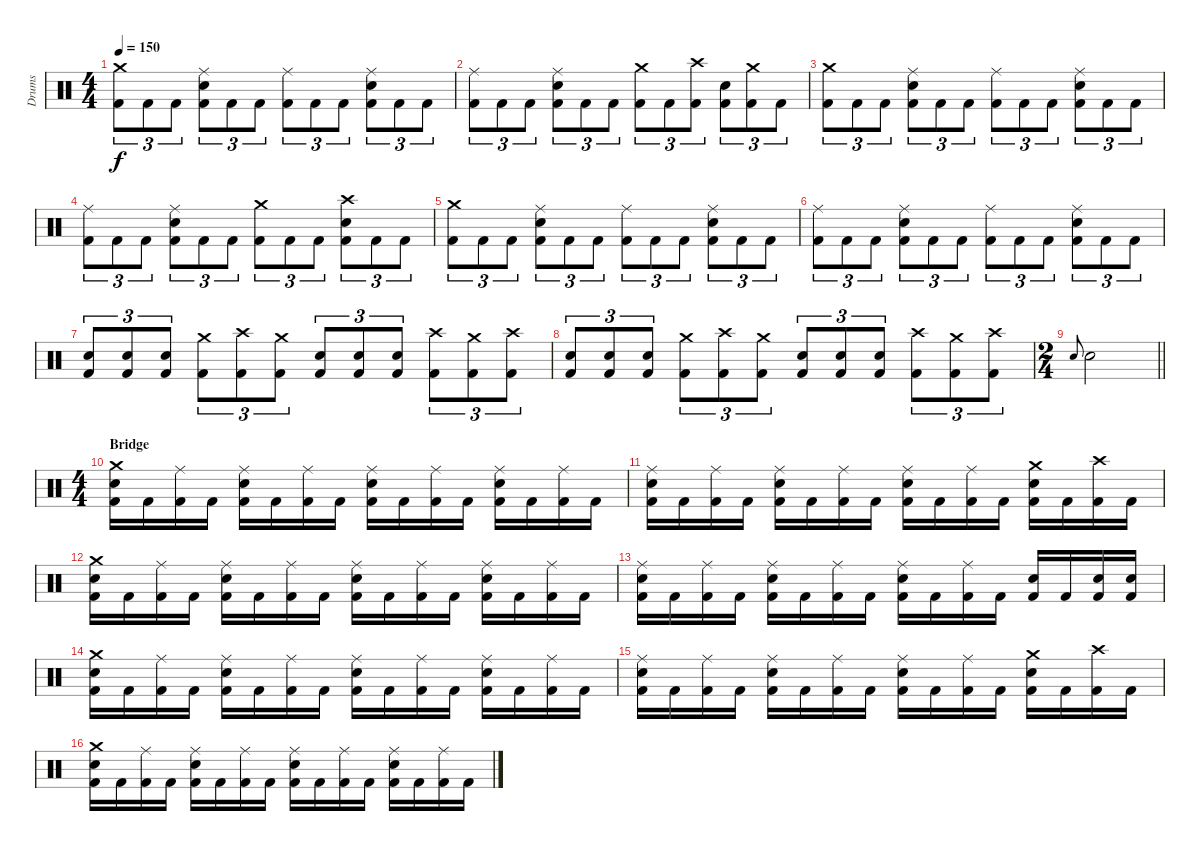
\track ("Drums" "Drums") {instrument percussion}
\staff {score}
\articulation defaults
\ts (4 4)
\tempo 150
\clef neutral
\ks c
("Kick (hit) 2" "Crash medium (hit)").8{tu (3 2) dy f} "Kick (hit) 2".8{tu (3 2)} "Kick (hit) 2".8{tu (3 2)} ("Kick (hit) 2" "Snare (hit) 2" "Ride (middle)").8{tu (3 2)} "Kick (hit) 2".8{tu (3 2)} "Kick (hit) 2".8{tu (3 2)} ("Kick (hit) 2" "Ride (middle)").8{tu (3 2)} "Kick (hit) 2".8{tu (3 2)} "Kick (hit) 2".8{tu (3 2)} ("Kick (hit) 2" "Snare (hit) 2" "Ride (middle)").8{tu (3 2)} "Kick (hit) 2".8{tu (3 2)} "Kick (hit) 2".8{tu (3 2)} |
("Kick (hit) 2" "Ride (middle)").8{tu (3 2)} "Kick (hit) 2".8{tu (3 2)} "Kick (hit) 2".8{tu (3 2)} ("Kick (hit) 2" "Snare (hit) 2" "Ride (middle)").8{tu (3 2)} "Kick (hit) 2".8{tu (3 2)} "Kick (hit) 2".8{tu (3 2)} ("Kick (hit) 2" "Crash medium (hit)").8{tu (3 2)} "Kick (hit) 2".8{tu (3 2)} ("Kick (hit) 2" "Crash high (hit)").8{tu (3 2)} ("Kick (hit) 2" "Snare (hit) 2").8{tu (3 2)} ("Kick (hit) 2" "Crash medium (hit)").8{tu (3 2)} "Kick (hit) 2".8{tu (3 2)} |
("Kick (hit) 2" "Crash medium (hit)").8{tu (3 2)} "Kick (hit) 2".8{tu (3 2)} "Kick (hit) 2".8{tu (3 2)} ("Kick (hit) 2" "Snare (hit) 2" "Ride (middle)").8{tu (3 2)} "Kick (hit) 2".8{tu (3 2)} "Kick (hit) 2".8{tu (3 2)} ("Kick (hit) 2" "Ride (middle)").8{tu (3 2)} "Kick (hit) 2".8{tu (3 2)} "Kick (hit) 2".8{tu (3 2)} ("Kick (hit) 2" "Snare (hit) 2" "Ride (middle)").8{tu (3 2)} "Kick (hit) 2".8{tu (3 2)} "Kick (hit) 2".8{tu (3 2)} |
("Kick (hit) 2" "Ride (middle)").8{tu (3 2)} "Kick (hit) 2".8{tu (3 2)} "Kick (hit) 2".8{tu (3 2)} ("Kick (hit) 2" "Snare (hit) 2" "Ride (middle)").8{tu (3 2)} "Kick (hit) 2".8{tu (3 2)} "Kick (hit) 2".8{tu (3 2)} ("Kick (hit) 2" "Crash medium (hit)").8{tu (3 2)} "Kick (hit) 2".8{tu (3 2)} "Kick (hit) 2".8{tu (3 2)} ("Kick (hit) 2" "Snare (hit) 2" "Crash high (hit)").8{tu (3 2)} "Kick (hit) 2".8{tu (3 2)} "Kick (hit) 2".8{tu (3 2)} |
("Kick (hit) 2" "Crash medium (hit)").8{tu (3 2)} "Kick (hit) 2".8{tu (3 2)} "Kick (hit) 2".8{tu (3 2)} ("Kick (hit) 2" "Snare (hit) 2" "Ride (middle)").8{tu (3 2)} "Kick (hit) 2".8{tu (3 2)} "Kick (hit) 2".8{tu (3 2)} ("Kick (hit) 2" "Ride (middle)").8{tu (3 2)} "Kick (hit) 2".8{tu (3 2)} "Kick (hit) 2".8{tu (3 2)} ("Kick (hit) 2" "Snare (hit) 2" "Ride (middle)").8{tu (3 2)} "Kick (hit) 2".8{tu (3 2)} "Kick (hit) 2".8{tu (3 2)} |
("Kick (hit) 2" "Ride (middle)").8{tu (3 2)} "Kick (hit) 2".8{tu (3 2)} "Kick (hit) 2".8{tu (3 2)} ("Kick (hit) 2" "Snare (hit) 2" "Ride (middle)").8{tu (3 2)} "Kick (hit) 2".8{tu (3 2)} "Kick (hit) 2".8{tu (3 2)} ("Kick (hit) 2" "Ride (middle)").8{tu (3 2)} "Kick (hit) 2".8{tu (3 2)} "Kick (hit) 2".8{tu (3 2)} ("Kick (hit) 2" "Snare (hit) 2" "Ride (middle)").8{tu (3 2)} "Kick (hit) 2".8{tu (3 2)} "Kick (hit) 2".8{tu (3 2)} |
("Kick (hit) 2" "Snare (hit) 2").8{tu (3 2)} ("Kick (hit) 2" "Snare (hit) 2").8{tu (3 2)} ("Kick (hit) 2" "Snare (hit) 2").8{tu (3 2)} ("Kick (hit) 2" "Crash medium (hit)").8{tu (3 2)} ("Kick (hit) 2" "Crash high (hit)").8{tu (3 2)} ("Kick (hit) 2" "Crash medium (hit)").8{tu (3 2)} ("Kick (hit) 2" "Snare (hit) 2").8{tu (3 2)} ("Kick (hit) 2" "Snare (hit) 2").8{tu (3 2)} ("Kick (hit) 2" "Snare (hit) 2").8{tu (3 2)} ("Kick (hit) 2" "Crash high (hit)").8{tu (3 2)} ("Kick (hit) 2" "Crash medium (hit)").8{tu (3 2)} ("Kick (hit) 2" "Crash high (hit)").8{tu (3 2)} |
("Kick (hit) 2" "Snare (hit) 2").8{tu (3 2)} ("Kick (hit) 2" "Snare (hit) 2").8{tu (3 2)} ("Kick (hit) 2" "Snare (hit) 2").8{tu (3 2)} ("Kick (hit) 2" "Crash medium (hit)").8{tu (3 2)} ("Kick (hit) 2" "Crash high (hit)").8{tu (3 2)} ("Kick (hit) 2" "Crash medium (hit)").8{tu (3 2)} ("Kick (hit) 2" "Snare (hit) 2").8{tu (3 2)} ("Kick (hit) 2" "Snare (hit) 2").8{tu (3 2)} ("Kick (hit) 2" "Snare (hit) 2").8{tu (3 2)} ("Kick (hit) 2" "Crash high (hit)").8{tu (3 2)} ("Kick (hit) 2" "Crash medium (hit)").8{tu (3 2)} ("Kick (hit) 2" "Crash high (hit)").8{tu (3 2)} |
\ts (2 4)
\barLineRight lightlight "Snare (hit) 2".8{gr onbeat} "Snare (hit) 2".2
|
\ts (4 4)
\section ("" "Bridge")
("Kick (hit) 2" "Snare (hit) 2" "Crash medium (hit)").16 "Kick (hit) 2".16 ("Kick (hit) 2" "Ride (middle)").16 "Kick (hit) 2".16 ("Kick (hit) 2" "Snare (hit) 2" "Ride (middle)").16 "Kick (hit) 2".16 ("Kick (hit) 2" "Ride (middle)").16 "Kick (hit) 2".16 ("Kick (hit) 2" "Snare (hit) 2" "Ride (middle)").16 "Kick (hit) 2".16 ("Kick (hit) 2" "Ride (middle)").16 "Kick (hit) 2".16 ("Kick (hit) 2" "Snare (hit) 2" "Ride (middle)").16 "Kick (hit) 2".16 ("Kick (hit) 2" "Ride (middle)").16 "Kick (hit) 2".16 |
("Kick (hit) 2" "Snare (hit) 2" "Ride (middle)").16 "Kick (hit) 2".16 ("Kick (hit) 2" "Ride (middle)").16 "Kick (hit) 2".16 ("Kick (hit) 2" "Snare (hit) 2" "Ride (middle)").16 "Kick (hit) 2".16 ("Kick (hit) 2" "Ride (middle)").16 "Kick (hit) 2".16 ("Kick (hit) 2" "Snare (hit) 2" "Ride (middle)").16 "Kick (hit) 2".16 ("Kick (hit) 2" "Ride (middle)").16 "Kick (hit) 2".16 ("Kick (hit) 2" "Snare (hit) 2" "Crash medium (hit)").16 "Kick (hit) 2".16 ("Kick (hit) 2" "Crash high (hit)").16 "Kick (hit) 2".16 |
("Kick (hit) 2" "Snare (hit) 2" "Crash medium (hit)").16 "Kick (hit) 2".16 ("Kick (hit) 2" "Ride (middle)").16 "Kick (hit) 2".16 ("Kick (hit) 2" "Snare (hit) 2" "Ride (middle)").16 "Kick (hit) 2".16 ("Kick (hit) 2" "Ride (middle)").16 "Kick (hit) 2".16 ("Kick (hit) 2" "Snare (hit) 2" "Ride (middle)").16 "Kick (hit) 2".16 ("Kick (hit) 2" "Ride (middle)").16 "Kick (hit) 2".16 ("Kick (hit) 2" "Snare (hit) 2" "Ride (middle)").16 "Kick (hit) 2".16 ("Kick (hit) 2" "Ride (middle)").16 "Kick (hit) 2".16 |
("Kick (hit) 2" "Snare (hit) 2" "Ride (middle)").16 "Kick (hit) 2".16 ("Kick (hit) 2" "Ride (middle)").16 "Kick (hit) 2".16 ("Kick (hit) 2" "Snare (hit) 2" "Ride (middle)").16 "Kick (hit) 2".16 ("Kick (hit) 2" "Ride (middle)").16 "Kick (hit) 2".16 ("Kick (hit) 2" "Snare (hit) 2" "Ride (middle)").16 "Kick (hit) 2".16 ("Kick (hit) 2" "Ride (middle)").16 "Kick (hit) 2".16 ("Kick (hit) 2" "Snare (hit) 2").16 "Kick (hit) 2".16 ("Kick (hit) 2" "Snare (hit) 2").16 ("Kick (hit) 2" "Snare (hit) 2").16 |
("Kick (hit) 2" "Snare (hit) 2" "Crash medium (hit)").16 "Kick (hit) 2".16 ("Kick (hit) 2" "Ride (middle)").16 "Kick (hit) 2".16 ("Kick (hit) 2" "Snare (hit) 2" "Ride (middle)").16 "Kick (hit) 2".16 ("Kick (hit) 2" "Ride (middle)").16 "Kick (hit) 2".16 ("Kick (hit) 2" "Snare (hit) 2" "Ride (middle)").16 "Kick (hit) 2".16 ("Kick (hit) 2" "Ride (middle)").16 "Kick (hit) 2".16 ("Kick (hit) 2" "Snare (hit) 2" "Ride (middle)").16 "Kick (hit) 2".16 ("Kick (hit) 2" "Ride (middle)").16 "Kick (hit) 2".16 |
("Kick (hit) 2" "Snare (hit) 2" "Ride (middle)").16 "Kick (hit) 2".16 ("Kick (hit) 2" "Ride (middle)").16 "Kick (hit) 2".16 ("Kick (hit) 2" "Snare (hit) 2" "Ride (middle)").16 "Kick (hit) 2".16 ("Kick (hit) 2" "Ride (middle)").16 "Kick (hit) 2".16 ("Kick (hit) 2" "Snare (hit) 2" "Ride (middle)").16 "Kick (hit) 2".16 ("Kick (hit) 2" "Ride (middle)").16 "Kick (hit) 2".16 ("Kick (hit) 2" "Snare (hit) 2" "Crash medium (hit)").16 "Kick (hit) 2".16 ("Kick (hit) 2" "Crash high (hit)").16 "Kick (hit) 2".16 |
("Kick (hit) 2" "Snare (hit) 2" "Crash medium (hit)").16 "Kick (hit) 2".16 ("Kick (hit) 2" "Ride (middle)").16 "Kick (hit) 2".16 ("Kick (hit) 2" "Snare (hit) 2" "Ride (middle)").16 "Kick (hit) 2".16 ("Kick (hit) 2" "Ride (middle)").16 "Kick (hit) 2".16 ("Kick (hit) 2" "Snare (hit) 2" "Ride (middle)").16 "Kick (hit) 2".16 ("Kick (hit) 2" "Ride (middle)").16 "Kick (hit) 2".16 ("Kick (hit) 2" "Snare (hit) 2" "Ride (middle)").16 "Kick (hit) 2".16 ("Kick (hit) 2" "Ride (middle)").16 "Kick (hit) 2".16
